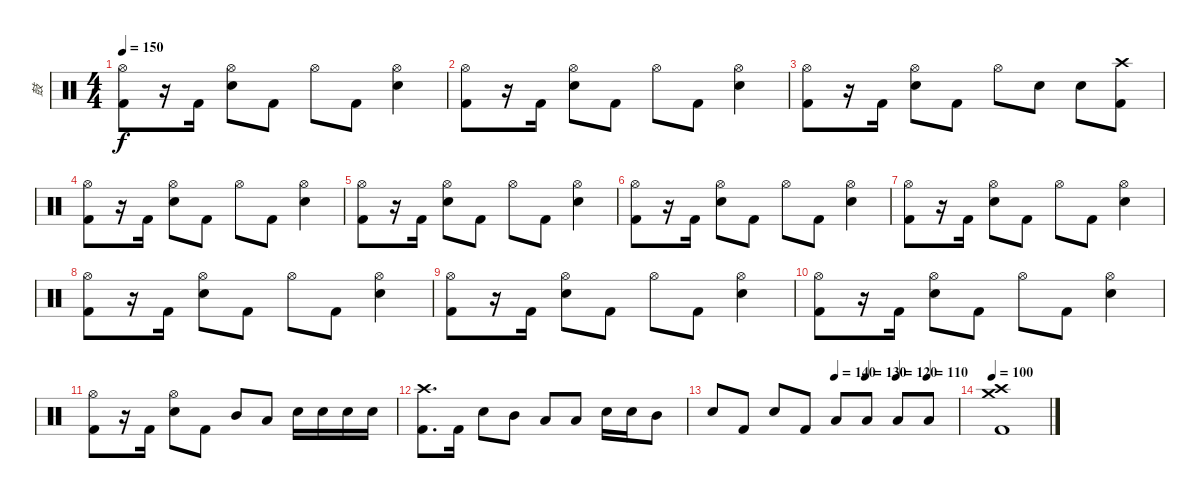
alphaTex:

\track ("鼓" "鼓") {instrument percussion}
\staff {score}
\articulation defaults
\ts (4 4)
\tempo 150
\clef neutral
\ks c
("Hi-Hat (open)" "Kick (hit) 2").8{dy f} r.16 "Kick (hit) 2".16 ("Hi-Hat (open)" "Snare (hit) 2").8 "Kick (hit) 2".8 "Hi-Hat (open)".8 "Kick (hit) 2".8 ("Hi-Hat (open)" "Snare (hit) 2").4 |
("Hi-Hat (open)" "Kick (hit) 2").8 r.16 "Kick (hit) 2".16 ("Hi-Hat (open)" "Snare (hit) 2").8 "Kick (hit) 2".8 "Hi-Hat (open)".8 "Kick (hit) 2".8 ("Hi-Hat (open)" "Snare (hit) 2").4 |
("Hi-Hat (open)" "Kick (hit) 2").8 r.16 "Kick (hit) 2".16 ("Hi-Hat (open)" "Snare (hit) 2").8 "Kick (hit) 2".8 "Hi-Hat (open)".8 "Snare (hit) 2".8 "Snare (hit) 2".8 ("Crash high (hit)" "Kick (hit) 2").8 |
("Hi-Hat (open)" "Kick (hit) 2").8 r.16 "Kick (hit) 2".16 ("Hi-Hat (open)" "Snare (hit) 2").8 "Kick (hit) 2".8 "Hi-Hat (open)".8 "Kick (hit) 2".8 ("Hi-Hat (open)" "Snare (hit) 2").4 |
("Hi-Hat (open)" "Kick (hit) 2").8 r.16 "Kick (hit) 2".16 ("Hi-Hat (open)" "Snare (hit) 2").8 "Kick (hit) 2".8 "Hi-Hat (open)".8 "Kick (hit) 2".8 ("Hi-Hat (open)" "Snare (hit) 2").4 |
("Hi-Hat (open)" "Kick (hit) 2").8 r.16 "Kick (hit) 2".16 ("Hi-Hat (open)" "Snare (hit) 2").8 "Kick (hit) 2".8 "Hi-Hat (open)".8 "Kick (hit) 2".8 ("Hi-Hat (open)" "Snare (hit) 2").4 |
("Hi-Hat (open)" "Kick (hit) 2").8 r.16 "Kick (hit) 2".16 ("Hi-Hat (open)" "Snare (hit) 2").8 "Kick (hit) 2".8 "Hi-Hat (open)".8 "Kick (hit) 2".8 ("Hi-Hat (open)" "Snare (hit) 2").4 |
("Hi-Hat (open)" "Kick (hit) 2").8 r.16 "Kick (hit) 2".16 ("Hi-Hat (open)" "Snare (hit) 2").8 "Kick (hit) 2".8 "Hi-Hat (open)".8 "Kick (hit) 2".8 ("Hi-Hat (open)" "Snare (hit) 2").4 |
("Hi-Hat (open)" "Kick (hit) 2").8 r.16 "Kick (hit) 2".16 ("Hi-Hat (open)" "Snare (hit) 2").8 "Kick (hit) 2".8 "Hi-Hat (open)".8 "Kick (hit) 2".8 ("Hi-Hat (open)" "Snare (hit) 2").4 |
("Hi-Hat (open)" "Kick (hit) 2").8 r.16 "Kick (hit) 2".16 ("Hi-Hat (open)" "Snare (hit) 2").8 "Kick (hit) 2".8 "Hi-Hat (open)".8 "Kick (hit) 2".8 ("Hi-Hat (open)" "Snare (hit) 2").4 |
("Hi-Hat (open)" "Kick (hit) 2").8 r.16 "Kick (hit) 2".16 ("Hi-Hat (open)" "Snare (hit) 2").8 "Kick (hit) 2".8 "Mid Tom (hit)".8 "Low Tom (hit)".8 "Snare (hit) 2".16 "Snare (hit) 2".16 "Snare (hit) 2".16 "Snare (hit) 2".16 |
("Crash high (hit)" "Kick (hit) 2").8{d} "Kick (hit) 2".16 "Snare (hit) 2".8 "Mid Tom (hit)".8 "Low Tom (hit)".8 "Low Tom (hit)".8 "Snare (hit) 2".16 "Snare (hit) 2".16 "Mid Tom (hit)".8 |
\tempo (140 0.5)
\tempo (130 0.625)
\tempo (120 0.75)
\tempo (110 0.875)
"Snare (hit) 2".8 "Kick (hit) 2".8 "Snare (hit) 2".8 "Kick (hit) 2".8 "Low Tom (hit)".8 "Low Tom (hit)".8 "Low Floor Tom (hit)".8 "Low Floor Tom (hit)".8 |
\tempo 100
("Crash high (hit)" "Crash medium (hit)" "Kick (hit) 2").1
